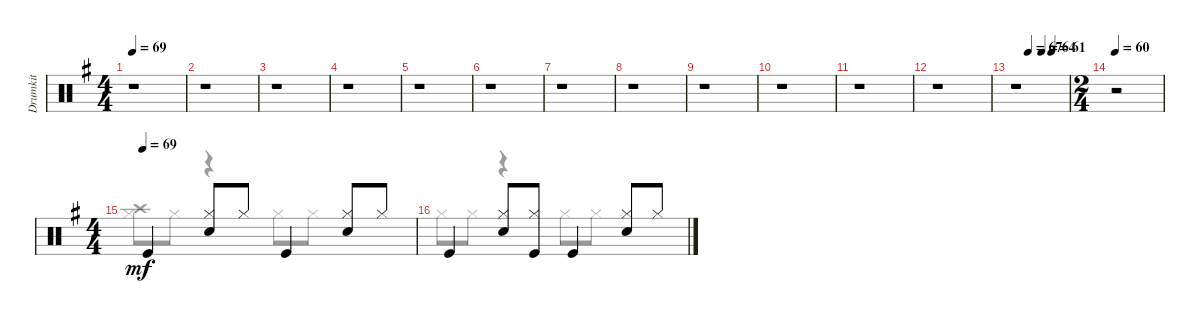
\track ("Drumkit" "Drumkit") {instrument percussion}
\staff {score}
\articulation defaults
\voice
\ts (4 4)
\tempo 69
\clef neutral
\ks eminor
r.1{dy mf} |
r.1 |
r.1 |
r.1 |
r.1 |
r.1 |
r.1 |
r.1 |
r.1 |
r.1 |
r.1 |
r.1 |
\tempo (67 0.25)
\tempo (64 0.5)
\tempo (61 0.6875)
r.1 |
\ts (2 4)
\tempo 60
r.2 |
\ts (4 4)
\tempo (69)
"Kick (hit)".4 ("Hi-Hat (closed)" "Snare (hit) 2").8 "Hi-Hat (closed)".8 "Kick (hit)".4 ("Snare (hit) 2" "Hi-Hat (closed)").8 "Hi-Hat (closed)".8 |
"Kick (hit)".4 ("Snare (hit) 2" "Hi-Hat (closed)").8 ("Hi-Hat (closed)" "Kick (hit)").8 "Kick (hit)".4 ("Snare (hit) 2" "Hi-Hat (closed)").8 "Hi-Hat (closed)".8
\voice
\clef neutral
\ottava regular
\simile none
\ks eminor
|
|
|
|
|
|
|
|
|
|
|
|
|
|
("Hi-Hat (closed)" "Crash high (hit)").8 "Hi-Hat (closed)".8 r.4 "Hi-Hat (closed)".8 "Hi-Hat (closed)".8 |
"Hi-Hat (closed)".8 "Hi-Hat (closed)".8 r.4 "Hi-Hat (closed)".8 "Hi-Hat (closed)".8
